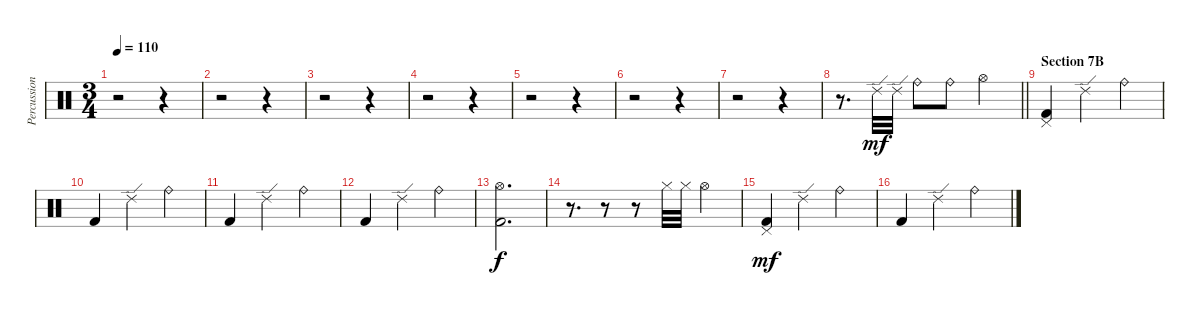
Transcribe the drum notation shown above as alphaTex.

\track ("Percussion" "Percussion") {instrument percussion}
\staff {score}
\articulation defaults
\ts (3 4)
\tempo 110
\clef neutral
\ks c
r.2{dy f} r.4 |
r.2 r.4 |
r.2 r.4 |
r.2 r.4 |
r.2 r.4 |
r.2 r.4 |
r.2 r.4 |
\barLineRight lightlight
r.8{d} "Ride (edge) 2".32{dy mf} "Ride (edge) 2".32 "Ride (bell)".8 "Ride (bell)".8 "Hi-Hat (open)".4 |
\section ("" "Section 7B")
("Pedal Hi-Hat (hit)" "Kick (hit) 2").4 "Ride (edge) 2".4 "Ride (bell)".4 |
"Kick (hit) 2".4 "Ride (edge) 2".4 "Ride (bell)".4 |
"Kick (hit) 2".4 "Ride (edge) 2".4 "Ride (bell)".4 |
"Kick (hit) 2".4 "Ride (edge) 2".4 "Ride (bell)".4 |
("Hi-Hat (open)" "Kick (hit) 2").2{d dy f} |
r.8{d} r.8 r.8 "Hi-Hat (closed)".32 "Hi-Hat (closed)".32 "Hi-Hat (open)".4 |
("Pedal Hi-Hat (hit)" "Kick (hit) 2").4{dy mf} "Ride (edge) 2".4 "Ride (bell)".4 |
"Kick (hit) 2".4 "Ride (edge) 2".4 "Ride (bell)".4
